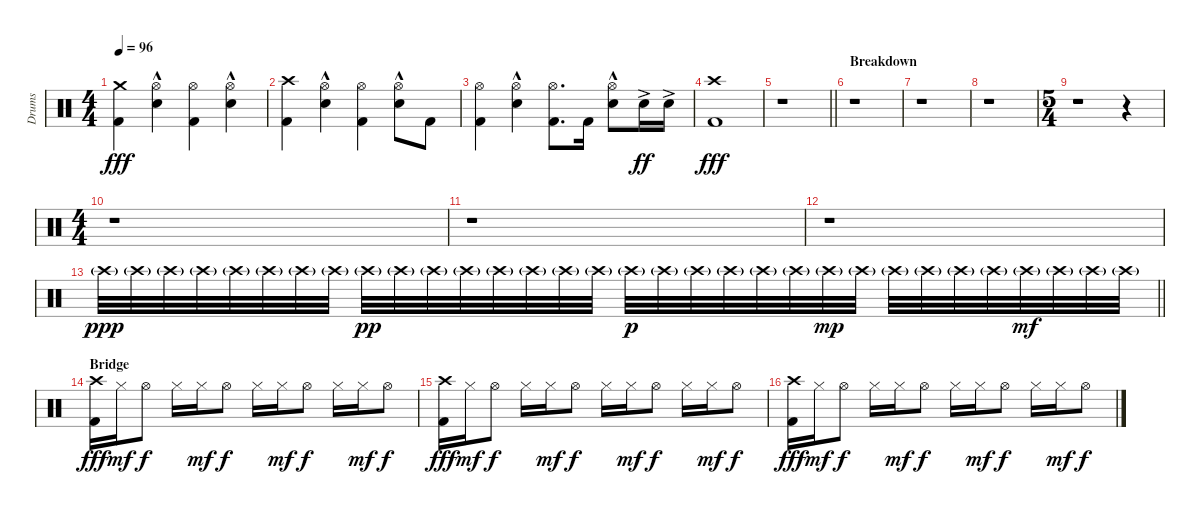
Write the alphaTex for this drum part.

\track ("Drums" "Drums") {instrument percussion}
\staff {score}
\articulation defaults
\ts (4 4)
\tempo 96
\clef neutral
\ks c
("Crash medium (hit)" "Kick (hit) 2").4{dy fff} ("Hi-Hat (open)" "Electric Snare (hit)"{hac}).4 ("Hi-Hat (open)" "Kick (hit) 2").4 ("Hi-Hat (open)" "Electric Snare (hit)"{hac}).4 |
("Crash high (hit)" "Kick (hit) 2").4 ("Hi-Hat (open)" "Electric Snare (hit)"{hac}).4 ("Hi-Hat (open)" "Kick (hit) 2").4 ("Hi-Hat (open)" "Electric Snare (hit)"{hac}).8 "Kick (hit) 2".8 |
("Hi-Hat (open)" "Kick (hit) 2").4 ("Hi-Hat (open)" "Electric Snare (hit)"{hac}).4 ("Hi-Hat (open)" "Kick (hit) 2").8{d} "Kick (hit) 2".16 ("Hi-Hat (open)" "Electric Snare (hit)"{hac}).8 "Electric Snare (hit)"{ac}.16{dy ff} "Electric Snare (hit)"{ac}.16 |
("Crash high (hit)" "Kick (hit) 2").1{dy fff} |
\barLineRight lightlight
r.1 |
\section ("" "Breakdown")
r.1 |
r.1 |
r.1 |
\ts (5 4)
r.1 r.4 |
\ts (4 4)
r.1 |
r.1 |
r.1 |
\barLineRight lightlight "Crash high (hit)"{g}.32{dy ppp} "Crash high (hit)"{g}.32 "Crash high (hit)"{g}.32 "Crash high (hit)"{g}.32 "Crash high (hit)"{g}.32 "Crash high (hit)"{g}.32 "Crash high (hit)"{g}.32 "Crash high (hit)"{g}.32 "Crash high (hit)"{g}.32{dy pp} "Crash high (hit)"{g}.32 "Crash high (hit)"{g}.32 "Crash high (hit)"{g}.32 "Crash high (hit)"{g}.32 "Crash high (hit)"{g}.32 "Crash high (hit)"{g}.32 "Crash high (hit)"{g}.32 "Crash high (hit)"{g}.32{dy p} "Crash high (hit)"{g}.32 "Crash high (hit)"{g}.32 "Crash high (hit)"{g}.32 "Crash high (hit)"{g}.32 "Crash high (hit)"{g}.32 "Crash high (hit)"{g}.32{dy mp} "Crash high (hit)"{g}.32 "Crash high (hit)"{g}.32 "Crash high (hit)"{g}.32 "Crash high (hit)"{g}.32 "Crash high (hit)"{g}.32 "Crash high (hit)"{g}.32{dy mf} "Crash high (hit)"{g}.32 "Crash high (hit)"{g}.32 "Crash high (hit)"{g}.32
|
\section ("" "Bridge")
("Crash high (hit)" "Kick (hit) 2").16{dy fff} "Hi-Hat (closed)".16{dy mf} "Hi-Hat (open)".8{dy f} "Hi-Hat (closed)".16 "Hi-Hat (closed)".16{dy mf} "Hi-Hat (open)".8{dy f} "Hi-Hat (closed)".16 "Hi-Hat (closed)".16{dy mf} "Hi-Hat (open)".8{dy f} "Hi-Hat (closed)".16 "Hi-Hat (closed)".16{dy mf} "Hi-Hat (open)".8{dy f} |
("Crash high (hit)" "Kick (hit) 2").16{dy fff} "Hi-Hat (closed)".16{dy mf} "Hi-Hat (open)".8{dy f} "Hi-Hat (closed)".16 "Hi-Hat (closed)".16{dy mf} "Hi-Hat (open)".8{dy f} "Hi-Hat (closed)".16 "Hi-Hat (closed)".16{dy mf} "Hi-Hat (open)".8{dy f} "Hi-Hat (closed)".16 "Hi-Hat (closed)".16{dy mf} "Hi-Hat (open)".8{dy f} |
("Crash high (hit)" "Kick (hit) 2").16{dy fff} "Hi-Hat (closed)".16{dy mf} "Hi-Hat (open)".8{dy f} "Hi-Hat (closed)".16 "Hi-Hat (closed)".16{dy mf} "Hi-Hat (open)".8{dy f} "Hi-Hat (closed)".16 "Hi-Hat (closed)".16{dy mf} "Hi-Hat (open)".8{dy f} "Hi-Hat (closed)".16 "Hi-Hat (closed)".16{dy mf} "Hi-Hat (open)".8{dy f}
